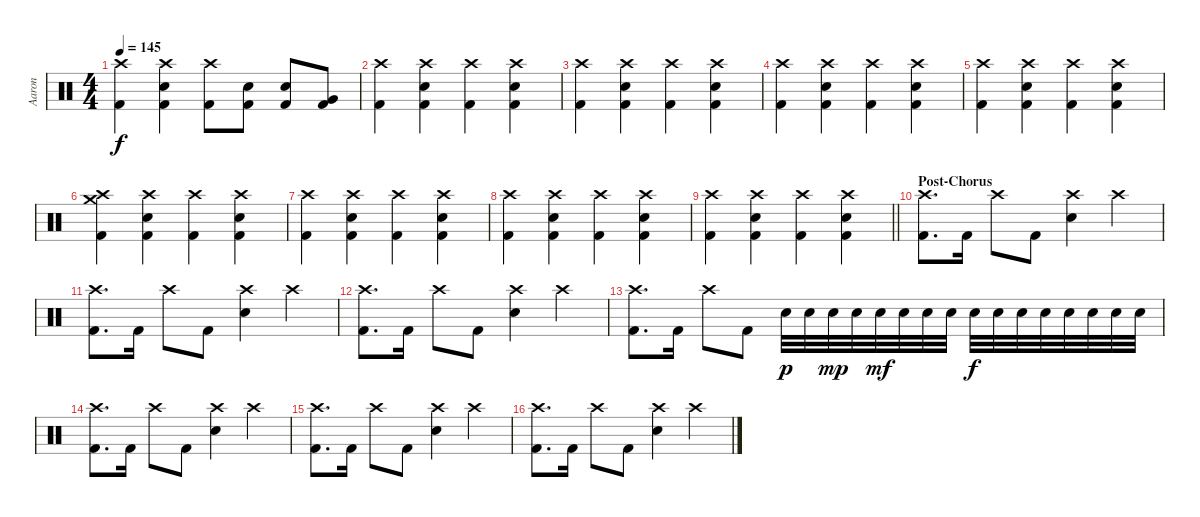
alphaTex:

\track ("Aaron" "Aaron") {instrument percussion}
\staff {score}
\articulation defaults
\ts (4 4)
\tempo 145
\clef neutral
\ks c
("Crash high (hit)" "Kick (hit) 2").4{dy f} ("Crash high (hit)" "Snare (hit) 2" "Kick (hit) 2").4 ("Crash high (hit)" "Kick (hit) 2").8 ("Snare (hit) 2" "Kick (hit) 2").8 ("Snare (hit) 2" "Kick (hit) 2").8 ("Very Low Tom (hit)" "Kick (hit) 2").8 |
("Crash high (hit)" "Kick (hit) 2").4 ("Crash high (hit)" "Snare (hit) 2" "Kick (hit) 2").4 ("Crash high (hit)" "Kick (hit) 2").4 ("Crash high (hit)" "Snare (hit) 2" "Kick (hit) 2").4 |
("Crash high (hit)" "Kick (hit) 2").4 ("Crash high (hit)" "Snare (hit) 2" "Kick (hit) 2").4 ("Crash high (hit)" "Kick (hit) 2").4 ("Crash high (hit)" "Snare (hit) 2" "Kick (hit) 2").4 |
("Crash high (hit)" "Kick (hit) 2").4 ("Crash high (hit)" "Snare (hit) 2" "Kick (hit) 2").4 ("Crash high (hit)" "Kick (hit) 2").4 ("Crash high (hit)" "Snare (hit) 2" "Kick (hit) 2").4 |
("Crash high (hit)" "Kick (hit) 2").4 ("Crash high (hit)" "Snare (hit) 2" "Kick (hit) 2").4 ("Crash high (hit)" "Kick (hit) 2").4 ("Crash high (hit)" "Snare (hit) 2" "Kick (hit) 2").4 |
("Crash high (hit)" "Crash medium (hit)" "Kick (hit) 2").4 ("Crash high (hit)" "Snare (hit) 2" "Kick (hit) 2").4 ("Crash high (hit)" "Kick (hit) 2").4 ("Crash high (hit)" "Snare (hit) 2" "Kick (hit) 2").4 |
("Crash high (hit)" "Kick (hit) 2").4 ("Crash high (hit)" "Snare (hit) 2" "Kick (hit) 2").4 ("Crash high (hit)" "Kick (hit) 2").4 ("Crash high (hit)" "Snare (hit) 2" "Kick (hit) 2").4 |
("Crash high (hit)" "Kick (hit) 2").4 ("Crash high (hit)" "Snare (hit) 2" "Kick (hit) 2").4 ("Crash high (hit)" "Kick (hit) 2").4 ("Crash high (hit)" "Snare (hit) 2" "Kick (hit) 2").4 |
\barLineRight lightlight
("Crash high (hit)" "Kick (hit) 2").4 ("Crash high (hit)" "Snare (hit) 2" "Kick (hit) 2").4 ("Crash high (hit)" "Kick (hit) 2").4 ("Crash high (hit)" "Snare (hit) 2" "Kick (hit) 2").4 |
\section ("" "Post-Chorus")
("Crash high (hit)" "Kick (hit) 2").8{d} "Kick (hit) 2".16 "Crash high (hit)".8 "Kick (hit) 2".8 ("Crash high (hit)" "Snare (hit) 2").4 "Crash high (hit)".4 |
("Crash high (hit)" "Kick (hit) 2").8{d} "Kick (hit) 2".16 "Crash high (hit)".8 "Kick (hit) 2".8 ("Crash high (hit)" "Snare (hit) 2").4 "Crash high (hit)".4 |
("Crash high (hit)" "Kick (hit) 2").8{d} "Kick (hit) 2".16 "Crash high (hit)".8 "Kick (hit) 2".8 ("Crash high (hit)" "Snare (hit) 2").4 "Crash high (hit)".4 |
("Crash high (hit)" "Kick (hit) 2").8{d} "Kick (hit) 2".16 "Crash high (hit)".8 "Kick (hit) 2".8 "Snare (hit) 2".32{dy p} "Snare (hit) 2".32 "Snare (hit) 2".32{dy mp} "Snare (hit) 2".32 "Snare (hit) 2".32{dy mf} "Snare (hit) 2".32 "Snare (hit) 2".32 "Snare (hit) 2".32 "Snare (hit) 2".32{dy f} "Snare (hit) 2".32 "Snare (hit) 2".32 "Snare (hit) 2".32 "Snare (hit) 2".32 "Snare (hit) 2".32 "Snare (hit) 2".32 "Snare (hit) 2".32 |
("Crash high (hit)" "Kick (hit) 2").8{d} "Kick (hit) 2".16 "Crash high (hit)".8 "Kick (hit) 2".8 ("Crash high (hit)" "Snare (hit) 2").4 "Crash high (hit)".4 |
("Crash high (hit)" "Kick (hit) 2").8{d} "Kick (hit) 2".16 "Crash high (hit)".8 "Kick (hit) 2".8 ("Crash high (hit)" "Snare (hit) 2").4 "Crash high (hit)".4 |
("Crash high (hit)" "Kick (hit) 2").8{d} "Kick (hit) 2".16 "Crash high (hit)".8 "Kick (hit) 2".8 ("Crash high (hit)" "Snare (hit) 2").4 "Crash high (hit)".4
